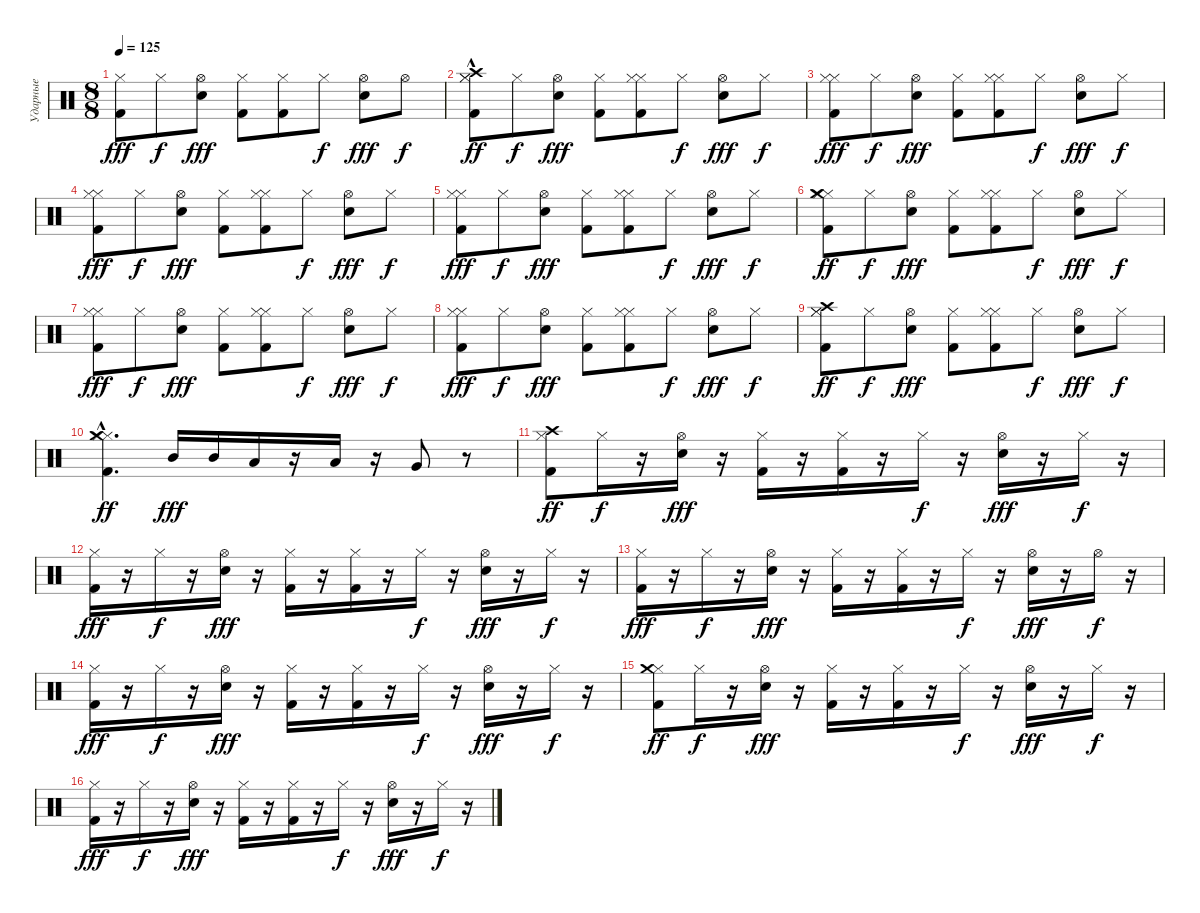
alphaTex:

\track ("Ударные" "Ударные") {instrument percussion}
\staff {score}
\articulation defaults
\ts (8 8)
\tempo 125
\clef neutral
\ks c
("Kick (hit) 2" "Hi-Hat (closed)").8{dy fff} "Hi-Hat (closed)".8{dy f} ("Hi-Hat (open)" "Snare (hit) 2").8{dy fff} ("Kick (hit) 2" "Hi-Hat (closed)").8 ("Kick (hit) 2" "Hi-Hat (closed)").8 "Hi-Hat (closed)".8{dy f} ("Hi-Hat (open)" "Snare (hit) 2").8{dy fff} "Hi-Hat (open)".8{dy f} |
("Kick (hit) 2" "Hi-Hat (closed)" "Hi-Hat (closed)" "Crash high (hit)"{hac}).8{dy ff} "Hi-Hat (closed)".8{dy f} ("Hi-Hat (open)" "Snare (hit) 2").8{dy fff} ("Kick (hit) 2" "Hi-Hat (closed)").8 ("Kick (hit) 2" "Hi-Hat (closed)" "Hi-Hat (closed)").8 "Hi-Hat (closed)".8{dy f} ("Hi-Hat (open)" "Snare (hit) 2").8{dy fff} "Hi-Hat (closed)".8{dy f} |
("Kick (hit) 2" "Hi-Hat (closed)" "Hi-Hat (closed)").8{dy fff} "Hi-Hat (closed)".8{dy f} ("Hi-Hat (open)" "Snare (hit) 2").8{dy fff} ("Kick (hit) 2" "Hi-Hat (closed)").8 ("Kick (hit) 2" "Hi-Hat (closed)" "Hi-Hat (closed)").8 "Hi-Hat (closed)".8{dy f} ("Hi-Hat (open)" "Snare (hit) 2").8{dy fff} "Hi-Hat (closed)".8{dy f} |
("Kick (hit) 2" "Hi-Hat (closed)" "Hi-Hat (closed)").8{dy fff} "Hi-Hat (closed)".8{dy f} ("Hi-Hat (open)" "Snare (hit) 2").8{dy fff} ("Kick (hit) 2" "Hi-Hat (closed)").8 ("Kick (hit) 2" "Hi-Hat (closed)" "Hi-Hat (closed)").8 "Hi-Hat (closed)".8{dy f} ("Hi-Hat (open)" "Snare (hit) 2").8{dy fff} "Hi-Hat (closed)".8{dy f} |
("Kick (hit) 2" "Hi-Hat (closed)" "Hi-Hat (closed)").8{dy fff} "Hi-Hat (closed)".8{dy f} ("Hi-Hat (open)" "Snare (hit) 2").8{dy fff} ("Kick (hit) 2" "Hi-Hat (closed)").8 ("Kick (hit) 2" "Hi-Hat (closed)" "Hi-Hat (closed)").8 "Hi-Hat (closed)".8{dy f} ("Hi-Hat (open)" "Snare (hit) 2").8{dy fff} "Hi-Hat (closed)".8{dy f} |
("Kick (hit) 2" "Hi-Hat (closed)" "Hi-Hat (closed)" "Crash medium (hit)").8{dy ff} "Hi-Hat (closed)".8{dy f} ("Hi-Hat (open)" "Snare (hit) 2").8{dy fff} ("Kick (hit) 2" "Hi-Hat (closed)").8 ("Kick (hit) 2" "Hi-Hat (closed)" "Hi-Hat (closed)").8 "Hi-Hat (closed)".8{dy f} ("Hi-Hat (open)" "Snare (hit) 2").8{dy fff} "Hi-Hat (closed)".8{dy f} |
("Kick (hit) 2" "Hi-Hat (closed)" "Hi-Hat (closed)").8{dy fff} "Hi-Hat (closed)".8{dy f} ("Hi-Hat (open)" "Snare (hit) 2").8{dy fff} ("Kick (hit) 2" "Hi-Hat (closed)").8 ("Kick (hit) 2" "Hi-Hat (closed)" "Hi-Hat (closed)").8 "Hi-Hat (closed)".8{dy f} ("Hi-Hat (open)" "Snare (hit) 2").8{dy fff} "Hi-Hat (closed)".8{dy f} |
("Kick (hit) 2" "Hi-Hat (closed)" "Hi-Hat (closed)").8{dy fff} "Hi-Hat (closed)".8{dy f} ("Hi-Hat (open)" "Snare (hit) 2").8{dy fff} ("Kick (hit) 2" "Hi-Hat (closed)").8 ("Kick (hit) 2" "Hi-Hat (closed)" "Hi-Hat (closed)").8 "Hi-Hat (closed)".8{dy f} ("Hi-Hat (open)" "Snare (hit) 2").8{dy fff} "Hi-Hat (closed)".8{dy f} |
("Kick (hit) 2" "Hi-Hat (closed)" "Hi-Hat (closed)" "Crash high (hit)").8{dy ff} "Hi-Hat (closed)".8{dy f} ("Hi-Hat (open)" "Snare (hit) 2").8{dy fff} ("Kick (hit) 2" "Hi-Hat (closed)").8 ("Kick (hit) 2" "Hi-Hat (closed)" "Hi-Hat (closed)").8 "Hi-Hat (closed)".8{dy f} ("Hi-Hat (open)" "Snare (hit) 2").8{dy fff} "Hi-Hat (closed)".8{dy f} |
("Kick (hit) 2" "Hi-Hat (closed)" "Hi-Hat (closed)" "Crash medium (hit)"{hac}).4{d dy ff} "Mid Tom (hit)".16{dy fff} "Mid Tom (hit)".16 "Low Tom (hit)".16 r.16 "Low Tom (hit)".16 r.16 "Very Low Tom (hit)".8 r.8 |
("Kick (hit) 2" "Hi-Hat (closed)" "Crash high (hit)").8{dy ff} "Hi-Hat (closed)".16{dy f} r.16 ("Hi-Hat (open)" "Snare (hit) 2").16{dy fff} r.16 ("Kick (hit) 2" "Hi-Hat (closed)").16 r.16 ("Kick (hit) 2" "Hi-Hat (closed)").16 r.16 "Hi-Hat (closed)".16{dy f} r.16 ("Hi-Hat (open)" "Snare (hit) 2").16{dy fff} r.16 "Hi-Hat (closed)".16{dy f} r.16 |
("Kick (hit) 2" "Hi-Hat (closed)").16{dy fff} r.16 "Hi-Hat (closed)".16{dy f} r.16 ("Hi-Hat (open)" "Snare (hit) 2").16{dy fff} r.16 ("Kick (hit) 2" "Hi-Hat (closed)").16 r.16 ("Kick (hit) 2" "Hi-Hat (closed)").16 r.16 "Hi-Hat (closed)".16{dy f} r.16 ("Hi-Hat (open)" "Snare (hit) 2").16{dy fff} r.16 "Hi-Hat (closed)".16{dy f} r.16 |
("Kick (hit) 2" "Hi-Hat (closed)").16{dy fff} r.16 "Hi-Hat (closed)".16{dy f} r.16 ("Hi-Hat (open)" "Snare (hit) 2").16{dy fff} r.16 ("Kick (hit) 2" "Hi-Hat (closed)").16 r.16 ("Kick (hit) 2" "Hi-Hat (closed)").16 r.16 "Hi-Hat (closed)".16{dy f} r.16 ("Hi-Hat (open)" "Snare (hit) 2").16{dy fff} r.16 "Hi-Hat (open)".16{dy f} r.16 |
("Kick (hit) 2" "Hi-Hat (closed)").16{dy fff} r.16 "Hi-Hat (closed)".16{dy f} r.16 ("Hi-Hat (open)" "Snare (hit) 2").16{dy fff} r.16 ("Kick (hit) 2" "Hi-Hat (closed)").16 r.16 ("Kick (hit) 2" "Hi-Hat (closed)").16 r.16 "Hi-Hat (closed)".16{dy f} r.16 ("Hi-Hat (open)" "Snare (hit) 2").16{dy fff} r.16 "Hi-Hat (closed)".16{dy f} r.16 |
("Kick (hit) 2" "Hi-Hat (closed)" "Crash medium (hit)").8{dy ff} "Hi-Hat (closed)".16{dy f} r.16 ("Hi-Hat (open)" "Snare (hit) 2").16{dy fff} r.16 ("Kick (hit) 2" "Hi-Hat (closed)").16 r.16 ("Kick (hit) 2" "Hi-Hat (closed)").16 r.16 "Hi-Hat (closed)".16{dy f} r.16 ("Hi-Hat (open)" "Snare (hit) 2").16{dy fff} r.16 "Hi-Hat (closed)".16{dy f} r.16 |
("Kick (hit) 2" "Hi-Hat (closed)").16{dy fff} r.16 "Hi-Hat (closed)".16{dy f} r.16 ("Hi-Hat (open)" "Snare (hit) 2").16{dy fff} r.16 ("Kick (hit) 2" "Hi-Hat (closed)").16 r.16 ("Kick (hit) 2" "Hi-Hat (closed)").16 r.16 "Hi-Hat (closed)".16{dy f} r.16 ("Hi-Hat (open)" "Snare (hit) 2").16{dy fff} r.16 "Hi-Hat (closed)".16{dy f} r.16
